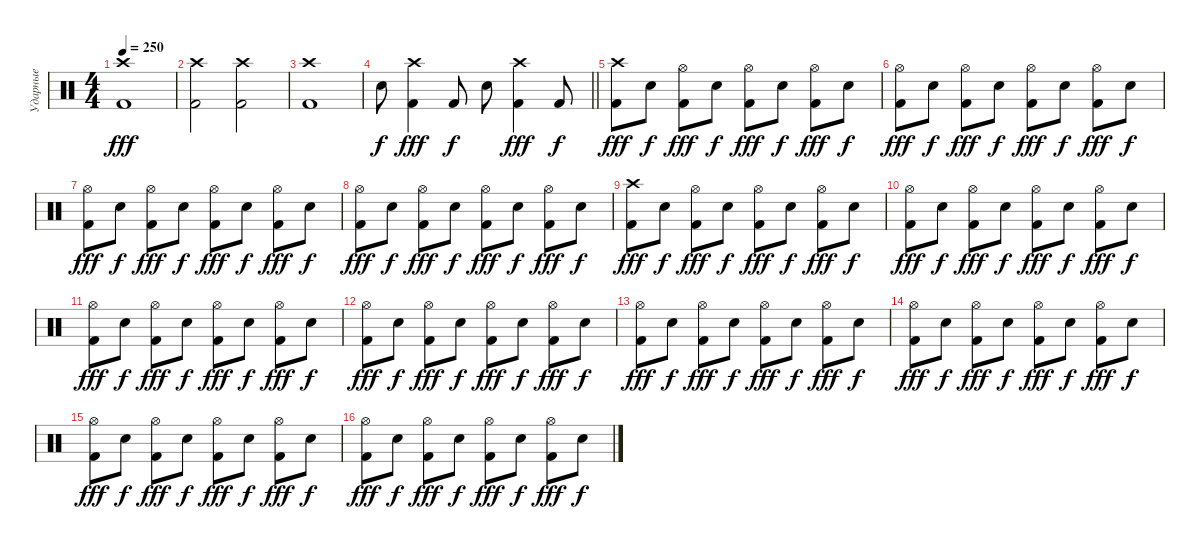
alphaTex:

\track ("Ударные" "Ударные") {instrument percussion}
\staff {score}
\articulation defaults
\ts (4 4)
\tempo 250
\clef neutral
\ks c
("Kick (hit) 2" "Crash high (hit)").1{dy fff} |
("Kick (hit) 2" "Crash high (hit)").2 ("Kick (hit) 2" "Crash high (hit)").2 |
("Kick (hit) 2" "Crash high (hit)").1 |
\barLineRight lightlight "Snare (hit) 2".8{dy f}
("Kick (hit) 2" "Crash high (hit)").4{dy fff} "Kick (hit) 2".8{dy f} "Snare (hit) 2".8 ("Kick (hit) 2" "Crash high (hit)").4{dy fff} "Kick (hit) 2".8{dy f} |
("Kick (hit) 2" "Crash high (hit)").8{dy fff} "Snare (hit) 2".8{dy f} ("Kick (hit) 2" "Hi-Hat (open)").8{dy fff} "Snare (hit) 2".8{dy f} ("Kick (hit) 2" "Hi-Hat (open)").8{dy fff} "Snare (hit) 2".8{dy f} ("Kick (hit) 2" "Hi-Hat (open)").8{dy fff} "Snare (hit) 2".8{dy f} |
("Kick (hit) 2" "Hi-Hat (open)").8{dy fff} "Snare (hit) 2".8{dy f} ("Kick (hit) 2" "Hi-Hat (open)").8{dy fff} "Snare (hit) 2".8{dy f} ("Kick (hit) 2" "Hi-Hat (open)").8{dy fff} "Snare (hit) 2".8{dy f} ("Kick (hit) 2" "Hi-Hat (open)").8{dy fff} "Snare (hit) 2".8{dy f} |
("Kick (hit) 2" "Hi-Hat (open)").8{dy fff} "Snare (hit) 2".8{dy f} ("Kick (hit) 2" "Hi-Hat (open)").8{dy fff} "Snare (hit) 2".8{dy f} ("Kick (hit) 2" "Hi-Hat (open)").8{dy fff} "Snare (hit) 2".8{dy f} ("Kick (hit) 2" "Hi-Hat (open)").8{dy fff} "Snare (hit) 2".8{dy f} |
("Kick (hit) 2" "Hi-Hat (open)").8{dy fff} "Snare (hit) 2".8{dy f} ("Kick (hit) 2" "Hi-Hat (open)").8{dy fff} "Snare (hit) 2".8{dy f} ("Kick (hit) 2" "Hi-Hat (open)").8{dy fff} "Snare (hit) 2".8{dy f} ("Kick (hit) 2" "Hi-Hat (open)").8{dy fff} "Snare (hit) 2".8{dy f} |
("Kick (hit) 2" "Crash high (hit)").8{dy fff} "Snare (hit) 2".8{dy f} ("Kick (hit) 2" "Hi-Hat (open)").8{dy fff} "Snare (hit) 2".8{dy f} ("Kick (hit) 2" "Hi-Hat (open)").8{dy fff} "Snare (hit) 2".8{dy f} ("Kick (hit) 2" "Hi-Hat (open)").8{dy fff} "Snare (hit) 2".8{dy f} |
("Kick (hit) 2" "Hi-Hat (open)").8{dy fff} "Snare (hit) 2".8{dy f} ("Kick (hit) 2" "Hi-Hat (open)").8{dy fff} "Snare (hit) 2".8{dy f} ("Kick (hit) 2" "Hi-Hat (open)").8{dy fff} "Snare (hit) 2".8{dy f} ("Kick (hit) 2" "Hi-Hat (open)").8{dy fff} "Snare (hit) 2".8{dy f} |
("Kick (hit) 2" "Hi-Hat (open)").8{dy fff} "Snare (hit) 2".8{dy f} ("Kick (hit) 2" "Hi-Hat (open)").8{dy fff} "Snare (hit) 2".8{dy f} ("Kick (hit) 2" "Hi-Hat (open)").8{dy fff} "Snare (hit) 2".8{dy f} ("Kick (hit) 2" "Hi-Hat (open)").8{dy fff} "Snare (hit) 2".8{dy f} |
("Kick (hit) 2" "Hi-Hat (open)").8{dy fff} "Snare (hit) 2".8{dy f} ("Kick (hit) 2" "Hi-Hat (open)").8{dy fff} "Snare (hit) 2".8{dy f} ("Kick (hit) 2" "Hi-Hat (open)").8{dy fff} "Snare (hit) 2".8{dy f} ("Kick (hit) 2" "Hi-Hat (open)").8{dy fff} "Snare (hit) 2".8{dy f} |
("Kick (hit) 2" "Hi-Hat (open)").8{dy fff} "Snare (hit) 2".8{dy f} ("Kick (hit) 2" "Hi-Hat (open)").8{dy fff} "Snare (hit) 2".8{dy f} ("Kick (hit) 2" "Hi-Hat (open)").8{dy fff} "Snare (hit) 2".8{dy f} ("Kick (hit) 2" "Hi-Hat (open)").8{dy fff} "Snare (hit) 2".8{dy f} |
("Kick (hit) 2" "Hi-Hat (open)").8{dy fff} "Snare (hit) 2".8{dy f} ("Kick (hit) 2" "Hi-Hat (open)").8{dy fff} "Snare (hit) 2".8{dy f} ("Kick (hit) 2" "Hi-Hat (open)").8{dy fff} "Snare (hit) 2".8{dy f} ("Kick (hit) 2" "Hi-Hat (open)").8{dy fff} "Snare (hit) 2".8{dy f} |
("Kick (hit) 2" "Hi-Hat (open)").8{dy fff} "Snare (hit) 2".8{dy f} ("Kick (hit) 2" "Hi-Hat (open)").8{dy fff} "Snare (hit) 2".8{dy f} ("Kick (hit) 2" "Hi-Hat (open)").8{dy fff} "Snare (hit) 2".8{dy f} ("Kick (hit) 2" "Hi-Hat (open)").8{dy fff} "Snare (hit) 2".8{dy f} |
("Kick (hit) 2" "Hi-Hat (open)").8{dy fff} "Snare (hit) 2".8{dy f} ("Kick (hit) 2" "Hi-Hat (open)").8{dy fff} "Snare (hit) 2".8{dy f} ("Kick (hit) 2" "Hi-Hat (open)").8{dy fff} "Snare (hit) 2".8{dy f} ("Kick (hit) 2" "Hi-Hat (open)").8{dy fff} "Snare (hit) 2".8{dy f}
